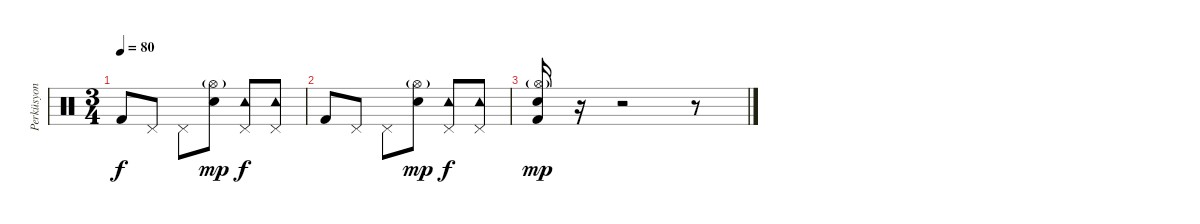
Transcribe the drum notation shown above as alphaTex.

\track ("Perküsyon" "Perküsyon") {instrument percussion}
\staff {score}
\articulation defaults
\ts (3 4)
\tempo 80
\clef neutral
\ks c "Kick (hit) 2".8{dy f} "Pedal Hi-Hat (hit)".8 "Pedal Hi-Hat (hit)".8
("Hi-Hat (open)"{g} "Snare (hit) 2").8{dy mp} ("Tambourine (hit)" "Pedal Hi-Hat (hit)").8{dy f} ("Tambourine (hit)" "Pedal Hi-Hat (hit)").8 |
"Kick (hit) 2".8 "Pedal Hi-Hat (hit)".8 "Pedal Hi-Hat (hit)".8 ("Hi-Hat (open)"{g} "Snare (hit) 2").8{dy mp} ("Tambourine (hit)" "Pedal Hi-Hat (hit)").8{dy f} ("Tambourine (hit)" "Pedal Hi-Hat (hit)").8 |
("Hi-Hat (open)"{g} "Snare (hit) 2" "Kick (hit) 2").16{dy mp} r.16 r.2 r.8
